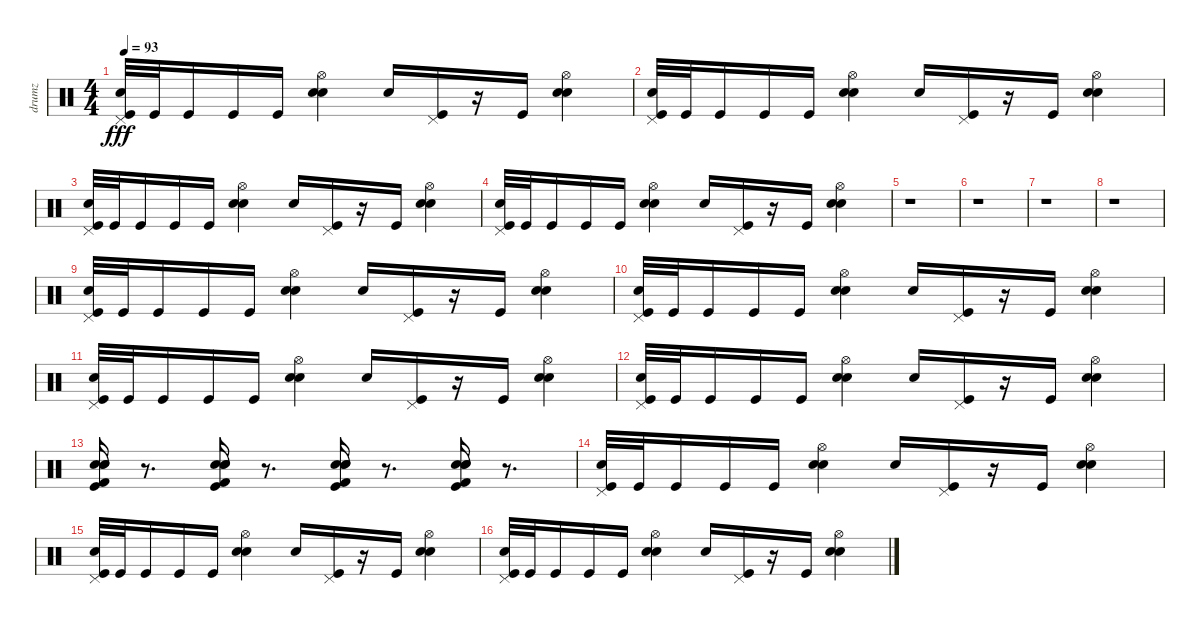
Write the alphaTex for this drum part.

\track ("drumz" "drumz") {instrument percussion}
\staff {score}
\articulation defaults
\ts (4 4)
\tempo 93
\clef neutral
\ks c
("Kick (hit)" "Pedal Hi-Hat (hit)" "Hand Clap (hit)").32{dy fff} "Kick (hit)".32 "Kick (hit)".16 "Kick (hit)".16 "Kick (hit)".16 ("Snare (hit) 2" "Hi-Hat (open)" "Hand Clap (hit)").4 "Hand Clap (hit)".16 ("Kick (hit)" "Pedal Hi-Hat (hit)").16 r.16 "Kick (hit)".16 ("Snare (hit) 2" "Hi-Hat (open)" "Hand Clap (hit)").4 |
("Kick (hit)" "Pedal Hi-Hat (hit)" "Hand Clap (hit)").32 "Kick (hit)".32 "Kick (hit)".16 "Kick (hit)".16 "Kick (hit)".16 ("Snare (hit) 2" "Hi-Hat (open)" "Hand Clap (hit)").4 "Hand Clap (hit)".16 ("Kick (hit)" "Pedal Hi-Hat (hit)").16 r.16 "Kick (hit)".16 ("Snare (hit) 2" "Hi-Hat (open)" "Hand Clap (hit)").4 |
("Kick (hit)" "Pedal Hi-Hat (hit)" "Hand Clap (hit)").32 "Kick (hit)".32 "Kick (hit)".16 "Kick (hit)".16 "Kick (hit)".16 ("Snare (hit) 2" "Hi-Hat (open)" "Hand Clap (hit)").4 "Hand Clap (hit)".16 ("Kick (hit)" "Pedal Hi-Hat (hit)").16 r.16 "Kick (hit)".16 ("Snare (hit) 2" "Hi-Hat (open)" "Hand Clap (hit)").4 |
("Kick (hit)" "Pedal Hi-Hat (hit)" "Hand Clap (hit)").32 "Kick (hit)".32 "Kick (hit)".16 "Kick (hit)".16 "Kick (hit)".16 ("Snare (hit) 2" "Hi-Hat (open)" "Hand Clap (hit)").4 "Hand Clap (hit)".16 ("Kick (hit)" "Pedal Hi-Hat (hit)").16 r.16 "Kick (hit)".16 ("Snare (hit) 2" "Hi-Hat (open)" "Hand Clap (hit)").4 |
r.1 |
r.1 |
r.1 |
r.1 |
("Kick (hit)" "Pedal Hi-Hat (hit)" "Hand Clap (hit)").32 "Kick (hit)".32 "Kick (hit)".16 "Kick (hit)".16 "Kick (hit)".16 ("Snare (hit) 2" "Hi-Hat (open)" "Hand Clap (hit)").4 "Hand Clap (hit)".16 ("Kick (hit)" "Pedal Hi-Hat (hit)").16 r.16 "Kick (hit)".16 ("Snare (hit) 2" "Hi-Hat (open)" "Hand Clap (hit)").4 |
("Kick (hit)" "Pedal Hi-Hat (hit)" "Hand Clap (hit)").32 "Kick (hit)".32 "Kick (hit)".16 "Kick (hit)".16 "Kick (hit)".16 ("Snare (hit) 2" "Hi-Hat (open)" "Hand Clap (hit)").4 "Hand Clap (hit)".16 ("Kick (hit)" "Pedal Hi-Hat (hit)").16 r.16 "Kick (hit)".16 ("Snare (hit) 2" "Hi-Hat (open)" "Hand Clap (hit)").4 |
("Kick (hit)" "Pedal Hi-Hat (hit)" "Hand Clap (hit)").32 "Kick (hit)".32 "Kick (hit)".16 "Kick (hit)".16 "Kick (hit)".16 ("Snare (hit) 2" "Hi-Hat (open)" "Hand Clap (hit)").4 "Hand Clap (hit)".16 ("Kick (hit)" "Pedal Hi-Hat (hit)").16 r.16 "Kick (hit)".16 ("Snare (hit) 2" "Hi-Hat (open)" "Hand Clap (hit)").4 |
("Kick (hit)" "Pedal Hi-Hat (hit)" "Hand Clap (hit)").32 "Kick (hit)".32 "Kick (hit)".16 "Kick (hit)".16 "Kick (hit)".16 ("Snare (hit) 2" "Hi-Hat (open)" "Hand Clap (hit)").4 "Hand Clap (hit)".16 ("Kick (hit)" "Pedal Hi-Hat (hit)").16 r.16 "Kick (hit)".16 ("Snare (hit) 2" "Hi-Hat (open)" "Hand Clap (hit)").4 |
("Kick (hit)" "Snare (hit) 2" "Kick (hit) 2" "Electric Snare (hit)" "Hand Clap (hit)").16 r.8{d} ("Kick (hit)" "Snare (hit) 2" "Kick (hit) 2" "Electric Snare (hit)" "Hand Clap (hit)").16 r.8{d} ("Kick (hit)" "Snare (hit) 2" "Kick (hit) 2" "Electric Snare (hit)" "Hand Clap (hit)").16 r.8{d} ("Kick (hit)" "Snare (hit) 2" "Kick (hit) 2" "Electric Snare (hit)" "Hand Clap (hit)").16 r.8{d} |
("Kick (hit)" "Pedal Hi-Hat (hit)" "Hand Clap (hit)").32 "Kick (hit)".32 "Kick (hit)".16 "Kick (hit)".16 "Kick (hit)".16 ("Snare (hit) 2" "Hi-Hat (open)" "Hand Clap (hit)").4 "Hand Clap (hit)".16 ("Kick (hit)" "Pedal Hi-Hat (hit)").16 r.16 "Kick (hit)".16 ("Snare (hit) 2" "Hi-Hat (open)" "Hand Clap (hit)").4 |
("Kick (hit)" "Pedal Hi-Hat (hit)" "Hand Clap (hit)").32 "Kick (hit)".32 "Kick (hit)".16 "Kick (hit)".16 "Kick (hit)".16 ("Snare (hit) 2" "Hi-Hat (open)" "Hand Clap (hit)").4 "Hand Clap (hit)".16 ("Kick (hit)" "Pedal Hi-Hat (hit)").16 r.16 "Kick (hit)".16 ("Snare (hit) 2" "Hi-Hat (open)" "Hand Clap (hit)").4 |
("Kick (hit)" "Pedal Hi-Hat (hit)" "Hand Clap (hit)").32 "Kick (hit)".32 "Kick (hit)".16 "Kick (hit)".16 "Kick (hit)".16 ("Snare (hit) 2" "Hi-Hat (open)" "Hand Clap (hit)").4 "Hand Clap (hit)".16 ("Kick (hit)" "Pedal Hi-Hat (hit)").16 r.16 "Kick (hit)".16 ("Snare (hit) 2" "Hi-Hat (open)" "Hand Clap (hit)").4
